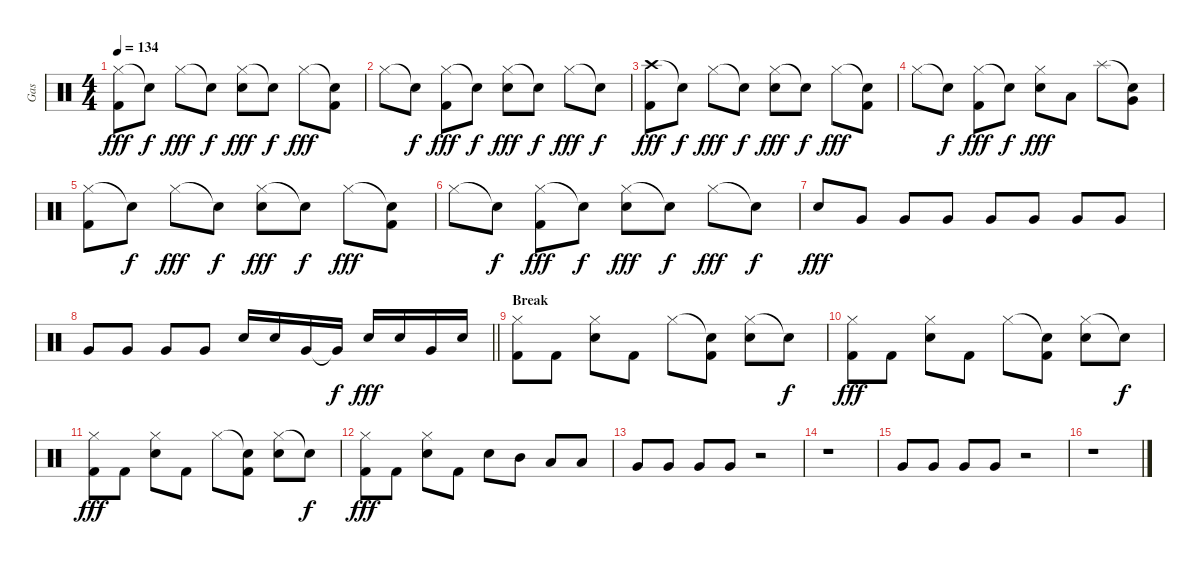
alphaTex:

\track ("Gas" "Gas") {instrument percussion}
\staff {score}
\articulation defaults
\ts (4 4)
\tempo 134
\clef neutral
\ks c
("Hi-Hat (closed)" "Kick (hit) 2").8{dy fff} "Snare (hit)"{t}.8{dy f} "Hi-Hat (closed)".8{dy fff} "Snare (hit)"{t}.8{dy f} ("Hi-Hat (closed)" "Snare (hit) 2").8{dy fff} "Snare (hit)"{t}.8{dy f} "Hi-Hat (closed)".8{dy fff} ("Snare (hit)"{t} "Kick (hit) 2").8 |
"Hi-Hat (closed)".8 "Snare (hit)"{t}.8{dy f} ("Hi-Hat (closed)" "Kick (hit) 2").8{dy fff} "Snare (hit)"{t}.8{dy f} ("Hi-Hat (closed)" "Snare (hit) 2").8{dy fff} "Snare (hit)"{t}.8{dy f} "Hi-Hat (closed)".8{dy fff} "Snare (hit)"{t}.8{dy f} |
("Crash high (hit)" "Kick (hit) 2").8{dy fff} "Snare (hit)"{t}.8{dy f} "Hi-Hat (closed)".8{dy fff} "Snare (hit)"{t}.8{dy f} ("Hi-Hat (closed)" "Snare (hit) 2").8{dy fff} "Snare (hit)"{t}.8{dy f} "Hi-Hat (closed)".8{dy fff} ("Snare (hit)"{t} "Kick (hit) 2").8 |
"Hi-Hat (closed)".8 "Snare (hit)"{t}.8{dy f} ("Hi-Hat (closed)" "Kick (hit) 2").8{dy fff} "Snare (hit)"{t}.8{dy f} ("Hi-Hat (closed)" "Snare (hit) 2").8{dy fff} "Low Tom (hit)".8 "Splash (hit)".8 ("Snare (hit)"{t} "Very Low Tom (hit)").8 |
("Hi-Hat (closed)" "Kick (hit) 2").8 "Snare (hit)"{t}.8{dy f} "Hi-Hat (closed)".8{dy fff} "Snare (hit)"{t}.8{dy f} ("Hi-Hat (closed)" "Snare (hit) 2").8{dy fff} "Snare (hit)"{t}.8{dy f} "Hi-Hat (closed)".8{dy fff} ("Snare (hit)"{t} "Kick (hit) 2").8 |
"Hi-Hat (closed)".8 "Snare (hit)"{t}.8{dy f} ("Hi-Hat (closed)" "Kick (hit) 2").8{dy fff} "Snare (hit)"{t}.8{dy f} ("Hi-Hat (closed)" "Snare (hit) 2").8{dy fff} "Snare (hit)"{t}.8{dy f} "Hi-Hat (closed)".8{dy fff} "Snare (hit)"{t}.8{dy f} |
"Snare (hit) 2".8{dy fff} "Very Low Tom (hit)".8 "Very Low Tom (hit)".8 "Very Low Tom (hit)".8 "Very Low Tom (hit)".8 "Very Low Tom (hit)".8 "Very Low Tom (hit)".8 "Very Low Tom (hit)".8 |
\barLineRight lightlight "Very Low Tom (hit)".8 "Very Low Tom (hit)".8 "Very Low Tom (hit)".8 "Very Low Tom (hit)".8 "Snare (hit) 2".16 "Snare (hit) 2".16 "Very Low Tom (hit)".16 "Very Low Tom (hit)"{t}.16{dy f} "Snare (hit) 2".16{dy fff} "Snare (hit) 2".16 "Very Low Tom (hit)".16 "Snare (hit) 2".16
|
\section ("" "Break")
("Hi-Hat (closed)" "Kick (hit) 2").8 "Kick (hit) 2".8 ("Hi-Hat (closed)" "Snare (hit) 2").8 "Kick (hit) 2".8 "Hi-Hat (closed)".8 ("Snare (hit)"{t} "Kick (hit) 2").8 ("Hi-Hat (closed)" "Snare (hit) 2").8 "Snare (hit)"{t}.8{dy f} |
("Hi-Hat (closed)" "Kick (hit) 2").8{dy fff} "Kick (hit) 2".8 ("Hi-Hat (closed)" "Snare (hit) 2").8 "Kick (hit) 2".8 "Hi-Hat (closed)".8 ("Snare (hit)"{t} "Kick (hit) 2").8 ("Hi-Hat (closed)" "Snare (hit) 2").8 "Snare (hit)"{t}.8{dy f} |
("Hi-Hat (closed)" "Kick (hit) 2").8{dy fff} "Kick (hit) 2".8 ("Hi-Hat (closed)" "Snare (hit) 2").8 "Kick (hit) 2".8 "Hi-Hat (closed)".8 ("Snare (hit)"{t} "Kick (hit) 2").8 ("Hi-Hat (closed)" "Snare (hit) 2").8 "Snare (hit)"{t}.8{dy f} |
("Hi-Hat (closed)" "Kick (hit) 2").8{dy fff} "Kick (hit) 2".8 ("Hi-Hat (closed)" "Snare (hit) 2").8 "Kick (hit) 2".8 "Snare (hit) 2".8 "Mid Tom (hit)".8 "Low Tom (hit)".8 "Low Tom (hit)".8 |
"Very Low Tom (hit)".8 "Very Low Tom (hit)".8 "Very Low Tom (hit)".8 "Very Low Tom (hit)".8 r.2 |
r.1 |
"Very Low Tom (hit)".8 "Very Low Tom (hit)".8 "Very Low Tom (hit)".8 "Very Low Tom (hit)".8 r.2 |
r.1
